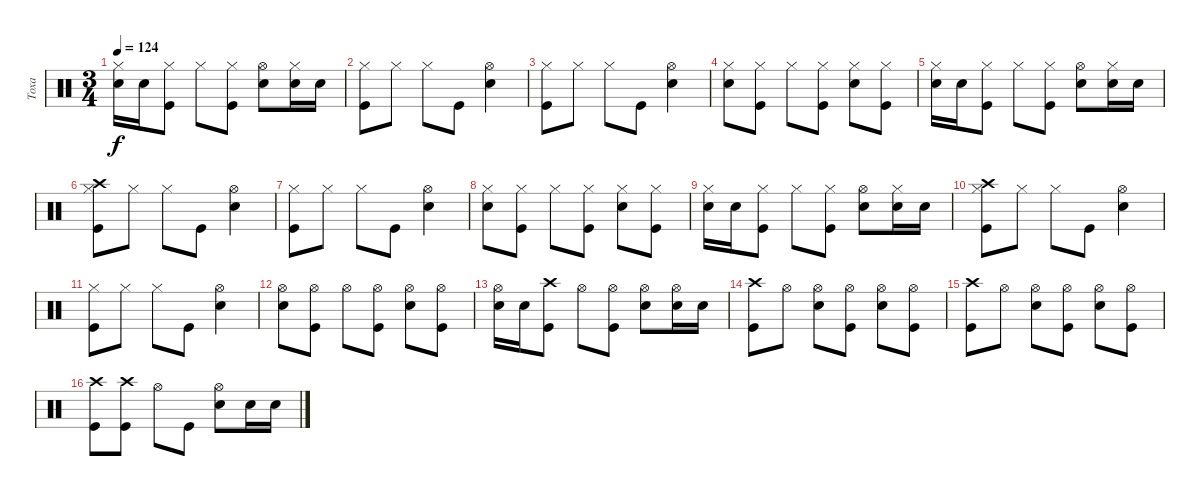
\track ("Тоха" "Тоха") {instrument percussion}
\staff {score}
\articulation defaults
\ts (3 4)
\tempo 124
\clef neutral
\ks c
("Snare (hit) 2" "Hi-Hat (closed)").16{dy f} "Snare (hit) 2".16 ("Kick (hit)" "Hi-Hat (closed)").8 "Hi-Hat (closed)".8 ("Kick (hit)" "Hi-Hat (closed)").8 ("Snare (hit) 2" "Hi-Hat (open)").8 ("Snare (hit) 2" "Hi-Hat (closed)").16 "Snare (hit) 2".16 |
("Kick (hit)" "Hi-Hat (closed)").8 "Hi-Hat (closed)".8 "Hi-Hat (closed)".8 "Kick (hit)".8 ("Snare (hit) 2" "Hi-Hat (open)").4 |
("Kick (hit)" "Hi-Hat (closed)").8 "Hi-Hat (closed)".8 "Hi-Hat (closed)".8 "Kick (hit)".8 ("Snare (hit) 2" "Hi-Hat (open)").4 |
("Snare (hit) 2" "Hi-Hat (closed)").8 ("Kick (hit)" "Hi-Hat (closed)").8 "Hi-Hat (closed)".8 ("Kick (hit)" "Hi-Hat (closed)").8 ("Snare (hit) 2" "Hi-Hat (closed)").8 ("Kick (hit)" "Hi-Hat (closed)").8 |
("Snare (hit) 2" "Hi-Hat (closed)").16 "Snare (hit) 2".16 ("Kick (hit)" "Hi-Hat (closed)").8 "Hi-Hat (closed)".8 ("Kick (hit)" "Hi-Hat (closed)").8 ("Snare (hit) 2" "Hi-Hat (open)").8 ("Snare (hit) 2" "Hi-Hat (closed)").16 "Snare (hit) 2".16 |
("Kick (hit)" "Hi-Hat (closed)" "Crash high (hit)").8 "Hi-Hat (closed)".8 "Hi-Hat (closed)".8 "Kick (hit)".8 ("Snare (hit) 2" "Hi-Hat (open)").4 |
("Kick (hit)" "Hi-Hat (closed)").8 "Hi-Hat (closed)".8 "Hi-Hat (closed)".8 "Kick (hit)".8 ("Snare (hit) 2" "Hi-Hat (open)").4 |
("Snare (hit) 2" "Hi-Hat (closed)").8 ("Kick (hit)" "Hi-Hat (closed)").8 "Hi-Hat (closed)".8 ("Kick (hit)" "Hi-Hat (closed)").8 ("Snare (hit) 2" "Hi-Hat (closed)").8 ("Kick (hit)" "Hi-Hat (closed)").8 |
("Snare (hit) 2" "Hi-Hat (closed)").16 "Snare (hit) 2".16 ("Kick (hit)" "Hi-Hat (closed)").8 "Hi-Hat (closed)".8 ("Kick (hit)" "Hi-Hat (closed)").8 ("Snare (hit) 2" "Hi-Hat (open)").8 ("Snare (hit) 2" "Hi-Hat (closed)").16 "Snare (hit) 2".16 |
("Kick (hit)" "Hi-Hat (closed)" "Crash high (hit)").8 "Hi-Hat (closed)".8 "Hi-Hat (closed)".8 "Kick (hit)".8 ("Snare (hit) 2" "Hi-Hat (open)").4 |
("Kick (hit)" "Hi-Hat (closed)").8 "Hi-Hat (closed)".8 "Hi-Hat (closed)".8 "Kick (hit)".8 ("Snare (hit) 2" "Hi-Hat (open)").4 |
("Snare (hit) 2" "Hi-Hat (open)").8 ("Kick (hit)" "Hi-Hat (open)").8 "Hi-Hat (open)".8 ("Kick (hit)" "Hi-Hat (open)").8 ("Snare (hit) 2" "Hi-Hat (open)").8 ("Kick (hit)" "Hi-Hat (open)").8 |
("Snare (hit) 2" "Hi-Hat (open)").16 "Snare (hit) 2".16 ("Kick (hit)" "Crash high (hit)").8 "Hi-Hat (open)".8 ("Kick (hit)" "Hi-Hat (open)").8 ("Snare (hit) 2" "Hi-Hat (open)").8 ("Snare (hit) 2" "Hi-Hat (open)").16 "Snare (hit) 2".16 |
("Kick (hit)" "Crash high (hit)").8 "Hi-Hat (open)".8 ("Snare (hit) 2" "Hi-Hat (open)").8 ("Kick (hit)" "Hi-Hat (open)").8 ("Snare (hit) 2" "Hi-Hat (open)").8 ("Kick (hit)" "Hi-Hat (open)").8 |
("Kick (hit)" "Crash high (hit)").8 "Hi-Hat (open)".8 ("Snare (hit) 2" "Hi-Hat (open)").8 ("Kick (hit)" "Hi-Hat (open)").8 ("Snare (hit) 2" "Hi-Hat (open)").8 ("Kick (hit)" "Hi-Hat (open)").8 |
("Kick (hit)" "Crash high (hit)").8 ("Kick (hit)" "Crash high (hit)").8 "Hi-Hat (open)".8 "Kick (hit)".8 ("Snare (hit) 2" "Hi-Hat (open)").8 "Snare (hit) 2".16 "Snare (hit) 2".16
